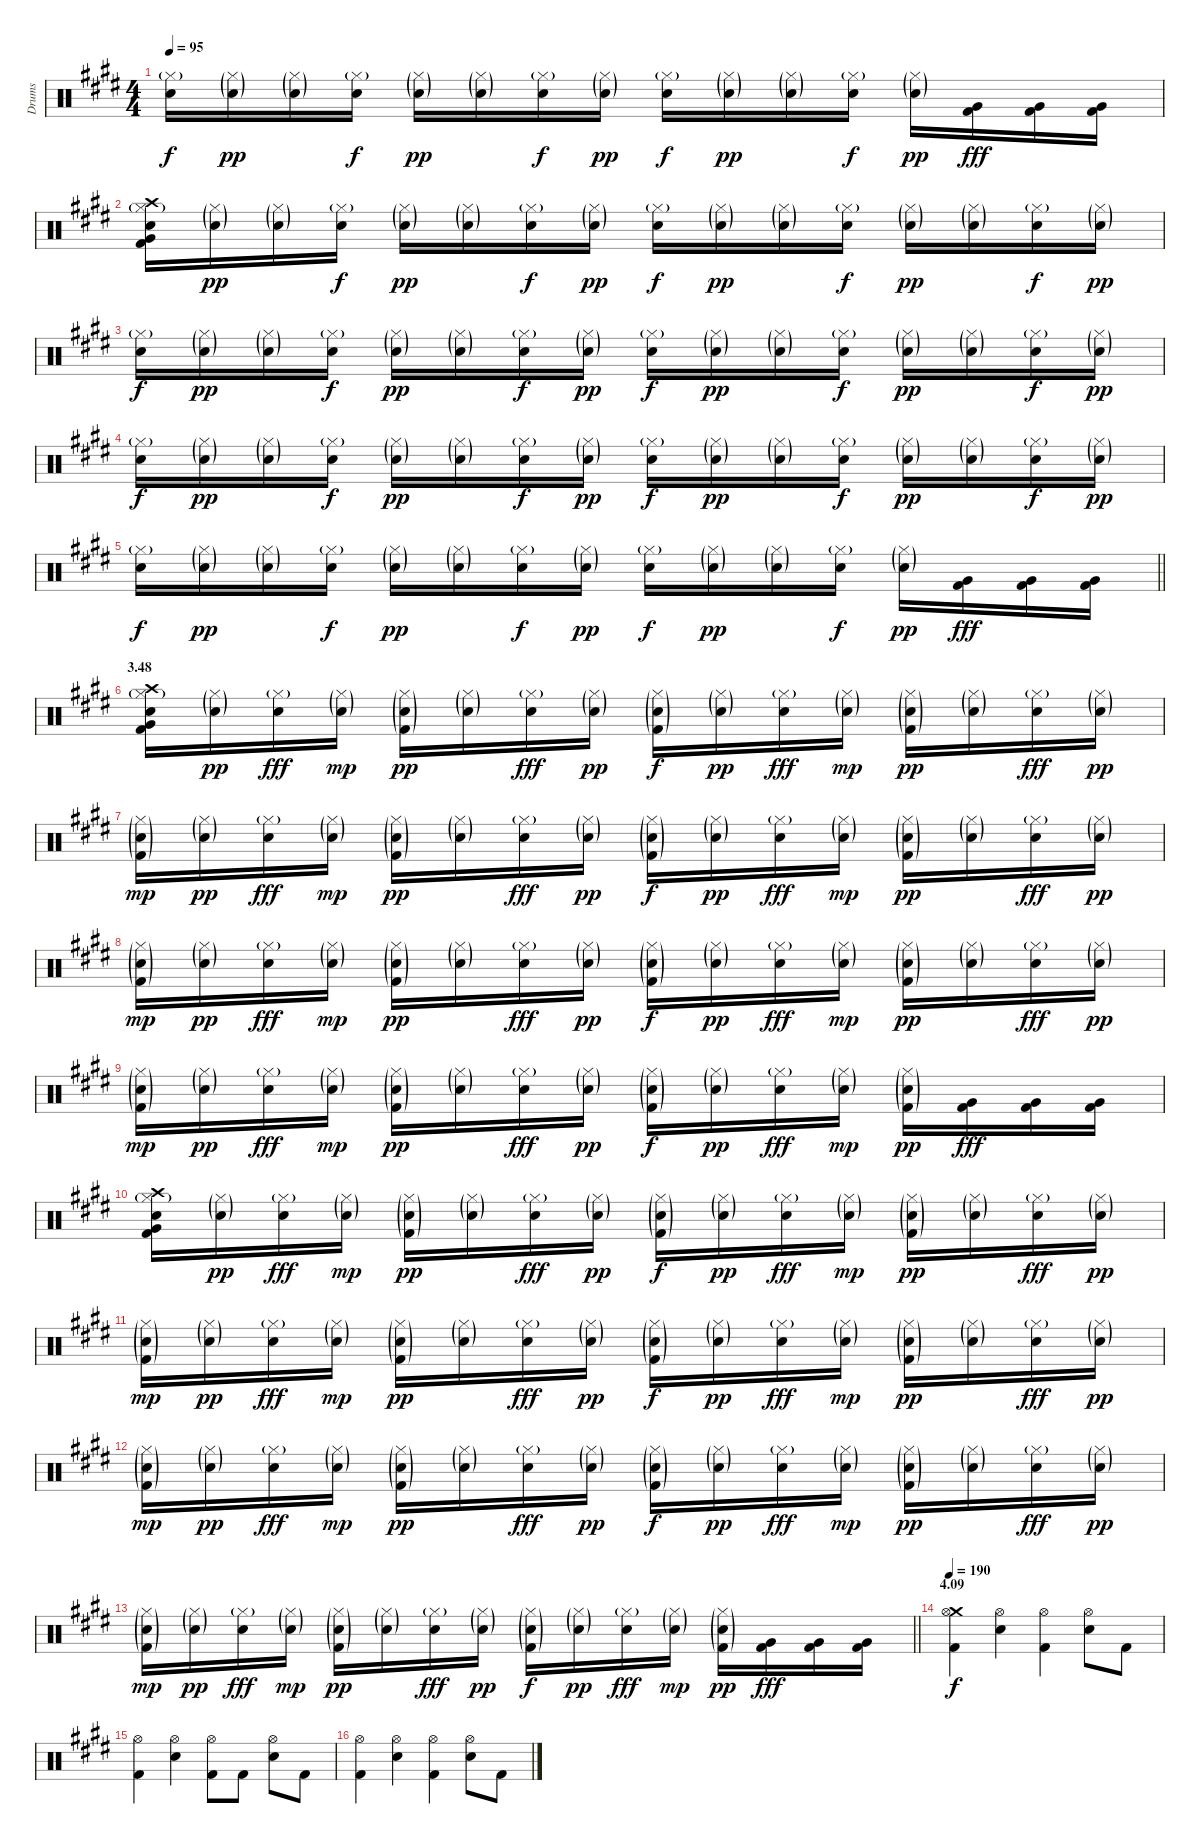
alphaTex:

\track ("Drums" "Drums") {instrument percussion}
\staff {score}
\articulation defaults
\ts (4 4)
\tempo 95
\clef neutral
\ks c#minor
("Hi-Hat (closed)"{g} "Snare (hit) 2").16{dy f} ("Hi-Hat (closed)"{g} "Snare (hit) 2"{g}).16{dy pp} ("Hi-Hat (closed)"{g} "Snare (hit) 2"{g}).16 ("Hi-Hat (closed)"{g} "Snare (hit) 2").16{dy f} ("Hi-Hat (closed)"{g} "Snare (hit) 2"{g}).16{dy pp} ("Hi-Hat (closed)"{g} "Snare (hit) 2"{g}).16 ("Hi-Hat (closed)"{g} "Snare (hit) 2").16{dy f} ("Hi-Hat (closed)"{g} "Snare (hit) 2"{g}).16{dy pp} ("Hi-Hat (closed)"{g} "Snare (hit) 2").16{dy f} ("Hi-Hat (closed)"{g} "Snare (hit) 2"{g}).16{dy pp} ("Hi-Hat (closed)"{g} "Snare (hit) 2"{g}).16 ("Hi-Hat (closed)"{g} "Snare (hit) 2").16{dy f} ("Hi-Hat (closed)"{g} "Snare (hit) 2"{g}).16{dy pp} ("Very Low Tom (hit)" "Kick (hit) 2").16{dy fff} ("Very Low Tom (hit)" "Kick (hit) 2").16 ("Very Low Tom (hit)" "Kick (hit) 2").16 |
("Crash high (hit)" "Hi-Hat (closed)"{g} "Snare (hit) 2" "Very Low Tom (hit)" "Kick (hit) 2").16 ("Hi-Hat (closed)"{g} "Snare (hit) 2"{g}).16{dy pp} ("Hi-Hat (closed)"{g} "Snare (hit) 2"{g}).16 ("Hi-Hat (closed)"{g} "Snare (hit) 2").16{dy f} ("Hi-Hat (closed)"{g} "Snare (hit) 2"{g}).16{dy pp} ("Hi-Hat (closed)"{g} "Snare (hit) 2"{g}).16 ("Hi-Hat (closed)"{g} "Snare (hit) 2").16{dy f} ("Hi-Hat (closed)"{g} "Snare (hit) 2"{g}).16{dy pp} ("Hi-Hat (closed)"{g} "Snare (hit) 2").16{dy f} ("Hi-Hat (closed)"{g} "Snare (hit) 2"{g}).16{dy pp} ("Hi-Hat (closed)"{g} "Snare (hit) 2"{g}).16 ("Hi-Hat (closed)"{g} "Snare (hit) 2").16{dy f} ("Hi-Hat (closed)"{g} "Snare (hit) 2"{g}).16{dy pp} ("Hi-Hat (closed)"{g} "Snare (hit) 2"{g}).16 ("Hi-Hat (closed)"{g} "Snare (hit) 2").16{dy f} ("Hi-Hat (closed)"{g} "Snare (hit) 2"{g}).16{dy pp} |
("Hi-Hat (closed)"{g} "Snare (hit) 2").16{dy f} ("Hi-Hat (closed)"{g} "Snare (hit) 2"{g}).16{dy pp} ("Hi-Hat (closed)"{g} "Snare (hit) 2"{g}).16 ("Hi-Hat (closed)"{g} "Snare (hit) 2").16{dy f} ("Hi-Hat (closed)"{g} "Snare (hit) 2"{g}).16{dy pp} ("Hi-Hat (closed)"{g} "Snare (hit) 2"{g}).16 ("Hi-Hat (closed)"{g} "Snare (hit) 2").16{dy f} ("Hi-Hat (closed)"{g} "Snare (hit) 2"{g}).16{dy pp} ("Hi-Hat (closed)"{g} "Snare (hit) 2").16{dy f} ("Hi-Hat (closed)"{g} "Snare (hit) 2"{g}).16{dy pp} ("Hi-Hat (closed)"{g} "Snare (hit) 2"{g}).16 ("Hi-Hat (closed)"{g} "Snare (hit) 2").16{dy f} ("Hi-Hat (closed)"{g} "Snare (hit) 2"{g}).16{dy pp} ("Hi-Hat (closed)"{g} "Snare (hit) 2"{g}).16 ("Hi-Hat (closed)"{g} "Snare (hit) 2").16{dy f} ("Hi-Hat (closed)"{g} "Snare (hit) 2"{g}).16{dy pp} |
("Hi-Hat (closed)"{g} "Snare (hit) 2").16{dy f} ("Hi-Hat (closed)"{g} "Snare (hit) 2"{g}).16{dy pp} ("Hi-Hat (closed)"{g} "Snare (hit) 2"{g}).16 ("Hi-Hat (closed)"{g} "Snare (hit) 2").16{dy f} ("Hi-Hat (closed)"{g} "Snare (hit) 2"{g}).16{dy pp} ("Hi-Hat (closed)"{g} "Snare (hit) 2"{g}).16 ("Hi-Hat (closed)"{g} "Snare (hit) 2").16{dy f} ("Hi-Hat (closed)"{g} "Snare (hit) 2"{g}).16{dy pp} ("Hi-Hat (closed)"{g} "Snare (hit) 2").16{dy f} ("Hi-Hat (closed)"{g} "Snare (hit) 2"{g}).16{dy pp} ("Hi-Hat (closed)"{g} "Snare (hit) 2"{g}).16 ("Hi-Hat (closed)"{g} "Snare (hit) 2").16{dy f} ("Hi-Hat (closed)"{g} "Snare (hit) 2"{g}).16{dy pp} ("Hi-Hat (closed)"{g} "Snare (hit) 2"{g}).16 ("Hi-Hat (closed)"{g} "Snare (hit) 2").16{dy f} ("Hi-Hat (closed)"{g} "Snare (hit) 2"{g}).16{dy pp} |
\barLineRight lightlight
("Hi-Hat (closed)"{g} "Snare (hit) 2").16{dy f} ("Hi-Hat (closed)"{g} "Snare (hit) 2"{g}).16{dy pp} ("Hi-Hat (closed)"{g} "Snare (hit) 2"{g}).16 ("Hi-Hat (closed)"{g} "Snare (hit) 2").16{dy f} ("Hi-Hat (closed)"{g} "Snare (hit) 2"{g}).16{dy pp} ("Hi-Hat (closed)"{g} "Snare (hit) 2"{g}).16 ("Hi-Hat (closed)"{g} "Snare (hit) 2").16{dy f} ("Hi-Hat (closed)"{g} "Snare (hit) 2"{g}).16{dy pp} ("Hi-Hat (closed)"{g} "Snare (hit) 2").16{dy f} ("Hi-Hat (closed)"{g} "Snare (hit) 2"{g}).16{dy pp} ("Hi-Hat (closed)"{g} "Snare (hit) 2"{g}).16 ("Hi-Hat (closed)"{g} "Snare (hit) 2").16{dy f} ("Hi-Hat (closed)"{g} "Snare (hit) 2"{g}).16{dy pp} ("Very Low Tom (hit)" "Kick (hit) 2").16{dy fff} ("Very Low Tom (hit)" "Kick (hit) 2").16 ("Very Low Tom (hit)" "Kick (hit) 2").16 |
\section ("" "3.48")
("Crash high (hit)" "Hi-Hat (closed)"{g} "Snare (hit) 2" "Very Low Tom (hit)" "Kick (hit) 2").16 ("Hi-Hat (closed)"{g} "Snare (hit) 2"{g}).16{dy pp} ("Hi-Hat (closed)"{g} "Snare (hit) 2").16{dy fff} ("Hi-Hat (closed)"{g} "Snare (hit) 2"{g}).16{dy mp} ("Hi-Hat (closed)"{g} "Snare (hit) 2"{g} "Kick (hit) 2"{g}).16{dy pp} ("Hi-Hat (closed)"{g} "Snare (hit) 2"{g}).16 ("Hi-Hat (closed)"{g} "Snare (hit) 2").16{dy fff} ("Hi-Hat (closed)"{g} "Snare (hit) 2"{g}).16{dy pp} ("Hi-Hat (closed)"{g} "Snare (hit) 2"{g} "Kick (hit) 2"{g}).16{dy f} ("Hi-Hat (closed)"{g} "Snare (hit) 2"{g}).16{dy pp} ("Hi-Hat (closed)"{g} "Snare (hit) 2").16{dy fff} ("Hi-Hat (closed)"{g} "Snare (hit) 2"{g}).16{dy mp} ("Hi-Hat (closed)"{g} "Snare (hit) 2"{g} "Kick (hit) 2"{g}).16{dy pp} ("Hi-Hat (closed)"{g} "Snare (hit) 2"{g}).16 ("Hi-Hat (closed)"{g} "Snare (hit) 2").16{dy fff} ("Hi-Hat (closed)"{g} "Snare (hit) 2"{g}).16{dy pp} |
("Hi-Hat (closed)"{g} "Snare (hit) 2"{g} "Kick (hit) 2"{g}).16{dy mp} ("Hi-Hat (closed)"{g} "Snare (hit) 2"{g}).16{dy pp} ("Hi-Hat (closed)"{g} "Snare (hit) 2").16{dy fff} ("Hi-Hat (closed)"{g} "Snare (hit) 2"{g}).16{dy mp} ("Hi-Hat (closed)"{g} "Snare (hit) 2"{g} "Kick (hit) 2"{g}).16{dy pp} ("Hi-Hat (closed)"{g} "Snare (hit) 2"{g}).16 ("Hi-Hat (closed)"{g} "Snare (hit) 2").16{dy fff} ("Hi-Hat (closed)"{g} "Snare (hit) 2"{g}).16{dy pp} ("Hi-Hat (closed)"{g} "Snare (hit) 2"{g} "Kick (hit) 2"{g}).16{dy f} ("Hi-Hat (closed)"{g} "Snare (hit) 2"{g}).16{dy pp} ("Hi-Hat (closed)"{g} "Snare (hit) 2").16{dy fff} ("Hi-Hat (closed)"{g} "Snare (hit) 2"{g}).16{dy mp} ("Hi-Hat (closed)"{g} "Snare (hit) 2"{g} "Kick (hit) 2"{g}).16{dy pp} ("Hi-Hat (closed)"{g} "Snare (hit) 2"{g}).16 ("Hi-Hat (closed)"{g} "Snare (hit) 2").16{dy fff} ("Hi-Hat (closed)"{g} "Snare (hit) 2"{g}).16{dy pp} |
("Hi-Hat (closed)"{g} "Snare (hit) 2"{g} "Kick (hit) 2"{g}).16{dy mp} ("Hi-Hat (closed)"{g} "Snare (hit) 2"{g}).16{dy pp} ("Hi-Hat (closed)"{g} "Snare (hit) 2").16{dy fff} ("Hi-Hat (closed)"{g} "Snare (hit) 2"{g}).16{dy mp} ("Hi-Hat (closed)"{g} "Snare (hit) 2"{g} "Kick (hit) 2"{g}).16{dy pp} ("Hi-Hat (closed)"{g} "Snare (hit) 2"{g}).16 ("Hi-Hat (closed)"{g} "Snare (hit) 2").16{dy fff} ("Hi-Hat (closed)"{g} "Snare (hit) 2"{g}).16{dy pp} ("Hi-Hat (closed)"{g} "Snare (hit) 2"{g} "Kick (hit) 2"{g}).16{dy f} ("Hi-Hat (closed)"{g} "Snare (hit) 2"{g}).16{dy pp} ("Hi-Hat (closed)"{g} "Snare (hit) 2").16{dy fff} ("Hi-Hat (closed)"{g} "Snare (hit) 2"{g}).16{dy mp} ("Hi-Hat (closed)"{g} "Snare (hit) 2"{g} "Kick (hit) 2"{g}).16{dy pp} ("Hi-Hat (closed)"{g} "Snare (hit) 2"{g}).16 ("Hi-Hat (closed)"{g} "Snare (hit) 2").16{dy fff} ("Hi-Hat (closed)"{g} "Snare (hit) 2"{g}).16{dy pp} |
("Hi-Hat (closed)"{g} "Snare (hit) 2"{g} "Kick (hit) 2"{g}).16{dy mp} ("Hi-Hat (closed)"{g} "Snare (hit) 2"{g}).16{dy pp} ("Hi-Hat (closed)"{g} "Snare (hit) 2").16{dy fff} ("Hi-Hat (closed)"{g} "Snare (hit) 2"{g}).16{dy mp} ("Hi-Hat (closed)"{g} "Snare (hit) 2"{g} "Kick (hit) 2"{g}).16{dy pp} ("Hi-Hat (closed)"{g} "Snare (hit) 2"{g}).16 ("Hi-Hat (closed)"{g} "Snare (hit) 2").16{dy fff} ("Hi-Hat (closed)"{g} "Snare (hit) 2"{g}).16{dy pp} ("Hi-Hat (closed)"{g} "Snare (hit) 2"{g} "Kick (hit) 2"{g}).16{dy f} ("Hi-Hat (closed)"{g} "Snare (hit) 2"{g}).16{dy pp} ("Hi-Hat (closed)"{g} "Snare (hit) 2").16{dy fff} ("Hi-Hat (closed)"{g} "Snare (hit) 2"{g}).16{dy mp} ("Hi-Hat (closed)"{g} "Snare (hit) 2"{g} "Kick (hit) 2"{g}).16{dy pp} ("Very Low Tom (hit)" "Kick (hit) 2").16{dy fff} ("Very Low Tom (hit)" "Kick (hit) 2").16 ("Very Low Tom (hit)" "Kick (hit) 2").16 |
("Crash high (hit)" "Hi-Hat (closed)"{g} "Snare (hit) 2" "Very Low Tom (hit)" "Kick (hit) 2").16 ("Hi-Hat (closed)"{g} "Snare (hit) 2"{g}).16{dy pp} ("Hi-Hat (closed)"{g} "Snare (hit) 2").16{dy fff} ("Hi-Hat (closed)"{g} "Snare (hit) 2"{g}).16{dy mp} ("Hi-Hat (closed)"{g} "Snare (hit) 2"{g} "Kick (hit) 2"{g}).16{dy pp} ("Hi-Hat (closed)"{g} "Snare (hit) 2"{g}).16 ("Hi-Hat (closed)"{g} "Snare (hit) 2").16{dy fff} ("Hi-Hat (closed)"{g} "Snare (hit) 2"{g}).16{dy pp} ("Hi-Hat (closed)"{g} "Snare (hit) 2"{g} "Kick (hit) 2"{g}).16{dy f} ("Hi-Hat (closed)"{g} "Snare (hit) 2"{g}).16{dy pp} ("Hi-Hat (closed)"{g} "Snare (hit) 2").16{dy fff} ("Hi-Hat (closed)"{g} "Snare (hit) 2"{g}).16{dy mp} ("Hi-Hat (closed)"{g} "Snare (hit) 2"{g} "Kick (hit) 2"{g}).16{dy pp} ("Hi-Hat (closed)"{g} "Snare (hit) 2"{g}).16 ("Hi-Hat (closed)"{g} "Snare (hit) 2").16{dy fff} ("Hi-Hat (closed)"{g} "Snare (hit) 2"{g}).16{dy pp} |
("Hi-Hat (closed)"{g} "Snare (hit) 2"{g} "Kick (hit) 2"{g}).16{dy mp} ("Hi-Hat (closed)"{g} "Snare (hit) 2"{g}).16{dy pp} ("Hi-Hat (closed)"{g} "Snare (hit) 2").16{dy fff} ("Hi-Hat (closed)"{g} "Snare (hit) 2"{g}).16{dy mp} ("Hi-Hat (closed)"{g} "Snare (hit) 2"{g} "Kick (hit) 2"{g}).16{dy pp} ("Hi-Hat (closed)"{g} "Snare (hit) 2"{g}).16 ("Hi-Hat (closed)"{g} "Snare (hit) 2").16{dy fff} ("Hi-Hat (closed)"{g} "Snare (hit) 2"{g}).16{dy pp} ("Hi-Hat (closed)"{g} "Snare (hit) 2"{g} "Kick (hit) 2"{g}).16{dy f} ("Hi-Hat (closed)"{g} "Snare (hit) 2"{g}).16{dy pp} ("Hi-Hat (closed)"{g} "Snare (hit) 2").16{dy fff} ("Hi-Hat (closed)"{g} "Snare (hit) 2"{g}).16{dy mp} ("Hi-Hat (closed)"{g} "Snare (hit) 2"{g} "Kick (hit) 2"{g}).16{dy pp} ("Hi-Hat (closed)"{g} "Snare (hit) 2"{g}).16 ("Hi-Hat (closed)"{g} "Snare (hit) 2").16{dy fff} ("Hi-Hat (closed)"{g} "Snare (hit) 2"{g}).16{dy pp} |
("Hi-Hat (closed)"{g} "Snare (hit) 2"{g} "Kick (hit) 2"{g}).16{dy mp} ("Hi-Hat (closed)"{g} "Snare (hit) 2"{g}).16{dy pp} ("Hi-Hat (closed)"{g} "Snare (hit) 2").16{dy fff} ("Hi-Hat (closed)"{g} "Snare (hit) 2"{g}).16{dy mp} ("Hi-Hat (closed)"{g} "Snare (hit) 2"{g} "Kick (hit) 2"{g}).16{dy pp} ("Hi-Hat (closed)"{g} "Snare (hit) 2"{g}).16 ("Hi-Hat (closed)"{g} "Snare (hit) 2").16{dy fff} ("Hi-Hat (closed)"{g} "Snare (hit) 2"{g}).16{dy pp} ("Hi-Hat (closed)"{g} "Snare (hit) 2"{g} "Kick (hit) 2"{g}).16{dy f} ("Hi-Hat (closed)"{g} "Snare (hit) 2"{g}).16{dy pp} ("Hi-Hat (closed)"{g} "Snare (hit) 2").16{dy fff} ("Hi-Hat (closed)"{g} "Snare (hit) 2"{g}).16{dy mp} ("Hi-Hat (closed)"{g} "Snare (hit) 2"{g} "Kick (hit) 2"{g}).16{dy pp} ("Hi-Hat (closed)"{g} "Snare (hit) 2"{g}).16 ("Hi-Hat (closed)"{g} "Snare (hit) 2").16{dy fff} ("Hi-Hat (closed)"{g} "Snare (hit) 2"{g}).16{dy pp} |
\barLineRight lightlight
("Hi-Hat (closed)"{g} "Snare (hit) 2"{g} "Kick (hit) 2"{g}).16{dy mp} ("Hi-Hat (closed)"{g} "Snare (hit) 2"{g}).16{dy pp} ("Hi-Hat (closed)"{g} "Snare (hit) 2").16{dy fff} ("Hi-Hat (closed)"{g} "Snare (hit) 2"{g}).16{dy mp} ("Hi-Hat (closed)"{g} "Snare (hit) 2"{g} "Kick (hit) 2"{g}).16{dy pp} ("Hi-Hat (closed)"{g} "Snare (hit) 2"{g}).16 ("Hi-Hat (closed)"{g} "Snare (hit) 2").16{dy fff} ("Hi-Hat (closed)"{g} "Snare (hit) 2"{g}).16{dy pp} ("Hi-Hat (closed)"{g} "Snare (hit) 2"{g} "Kick (hit) 2"{g}).16{dy f} ("Hi-Hat (closed)"{g} "Snare (hit) 2"{g}).16{dy pp} ("Hi-Hat (closed)"{g} "Snare (hit) 2").16{dy fff} ("Hi-Hat (closed)"{g} "Snare (hit) 2"{g}).16{dy mp} ("Hi-Hat (closed)"{g} "Snare (hit) 2"{g} "Kick (hit) 2"{g}).16{dy pp} ("Very Low Tom (hit)" "Kick (hit) 2").16{dy fff} ("Very Low Tom (hit)" "Kick (hit) 2").16 ("Very Low Tom (hit)" "Kick (hit) 2").16 |
\section ("" "4.09")
\tempo 190
("Crash medium (hit)" "Hi-Hat (open)" "Kick (hit) 2").4{dy f} ("Hi-Hat (open)" "Electric Snare (hit)").4 ("Hi-Hat (open)" "Kick (hit) 2").4 ("Hi-Hat (open)" "Electric Snare (hit)").8 "Kick (hit) 2".8 |
("Hi-Hat (open)" "Kick (hit) 2").4 ("Hi-Hat (open)" "Electric Snare (hit)").4 ("Hi-Hat (open)" "Kick (hit) 2").8 "Kick (hit) 2".8 ("Hi-Hat (open)" "Electric Snare (hit)").8 "Kick (hit) 2".8 |
("Hi-Hat (open)" "Kick (hit) 2").4 ("Hi-Hat (open)" "Electric Snare (hit)").4 ("Hi-Hat (open)" "Kick (hit) 2").4 ("Hi-Hat (open)" "Electric Snare (hit)").8 "Kick (hit) 2".8
